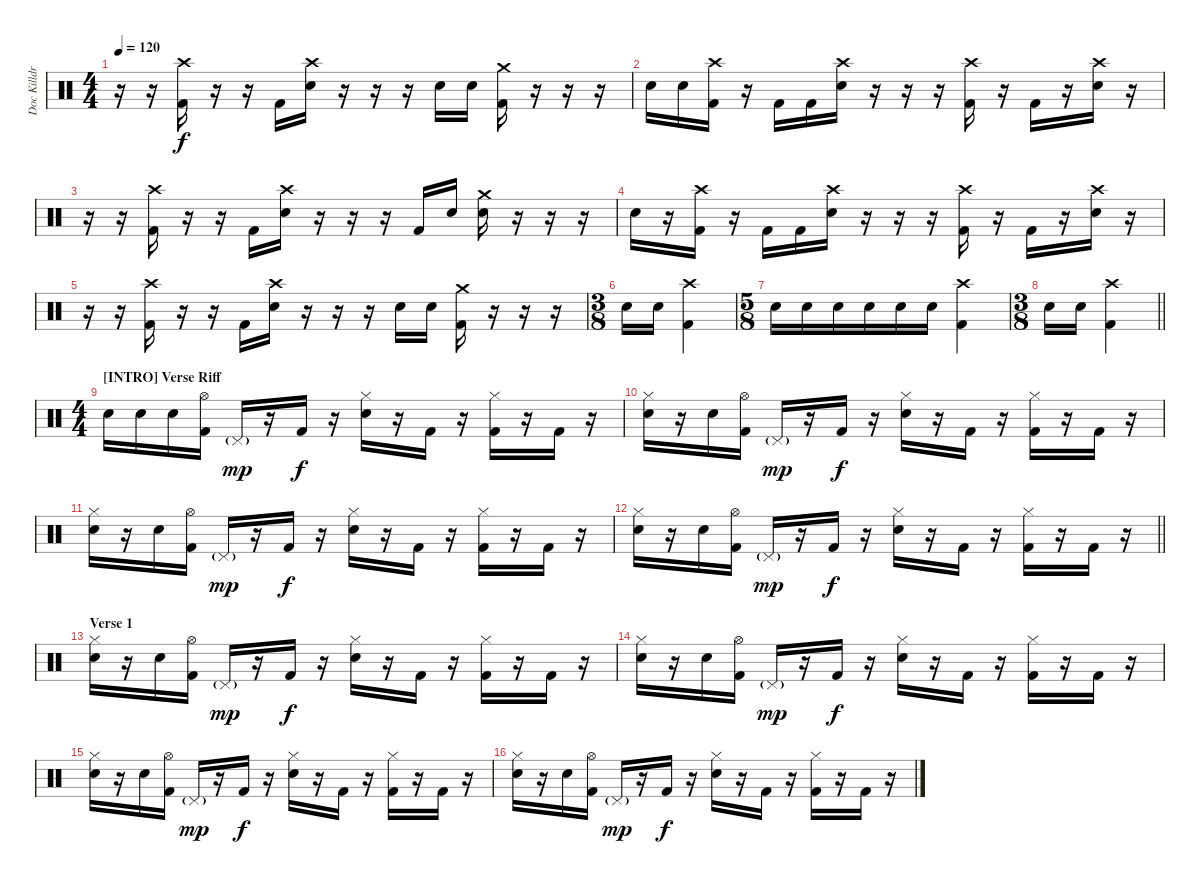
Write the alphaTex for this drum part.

\track ("Doc Killdrums (What else?)" "Doc Killdr") {instrument percussion}
\staff {score}
\articulation defaults
\ts (4 4)
\tempo 120
\clef neutral
\ks c
r.16{dy f} r.16 ("Kick (hit) 2" "Crash high (hit)").16 r.16 r.16 "Kick (hit) 2".16 ("Snare (hit) 2" "Crash high (hit)").16 r.16 r.16 r.16 "Snare (hit) 2".16 "Snare (hit) 2".16 ("Kick (hit) 2" "Crash medium (hit)").16 r.16 r.16 r.16 |
"Snare (hit) 2".16 "Snare (hit) 2".16 ("Kick (hit) 2" "Crash high (hit)").16 r.16 "Kick (hit) 2".16 "Kick (hit) 2".16 ("Snare (hit) 2" "Crash high (hit)").16 r.16 r.16 r.16 ("Kick (hit) 2" "Crash high (hit)").16 r.16 "Kick (hit) 2".16 r.16 ("Snare (hit) 2" "Crash high (hit)").16 r.16 |
r.16 r.16 ("Kick (hit) 2" "Crash high (hit)").16 r.16 r.16 "Kick (hit) 2".16 ("Snare (hit) 2" "Crash high (hit)").16 r.16 r.16 r.16 "Kick (hit) 2".16 "Snare (hit) 2".16 ("Snare (hit) 2" "Crash medium (hit)").16 r.16 r.16 r.16 |
"Snare (hit) 2".16 r.16 ("Kick (hit) 2" "Crash high (hit)").16 r.16 "Kick (hit) 2".16 "Kick (hit) 2".16 ("Snare (hit) 2" "Crash high (hit)").16 r.16 r.16 r.16 ("Kick (hit) 2" "Crash high (hit)").16 r.16 "Kick (hit) 2".16 r.16 ("Snare (hit) 2" "Crash high (hit)").16 r.16 |
r.16 r.16 ("Kick (hit) 2" "Crash high (hit)").16 r.16 r.16 "Kick (hit) 2".16 ("Snare (hit) 2" "Crash high (hit)").16 r.16 r.16 r.16 "Snare (hit) 2".16 "Snare (hit) 2".16 ("Kick (hit) 2" "Crash medium (hit)").16 r.16 r.16 r.16 |
\ts (3 8)
"Snare (hit) 2".16 "Snare (hit) 2".16 ("Kick (hit) 2" "Crash high (hit)").4 |
\ts (5 8)
"Snare (hit) 2".16 "Snare (hit) 2".16 "Snare (hit) 2".16 "Snare (hit) 2".16 "Snare (hit) 2".16 "Snare (hit) 2".16 ("Kick (hit) 2" "Crash high (hit)").4 |
\ts (3 8)
\barLineRight lightlight "Snare (hit) 2".16 "Snare (hit) 2".16
("Kick (hit) 2" "Crash high (hit)").4 |
\ts (4 4)
\section ("" "[INTRO] Verse Riff")
"Snare (hit) 2".16 "Snare (hit) 2".16 "Snare (hit) 2".16 ("Kick (hit) 2" "Hi-Hat (open)").16 "Pedal Hi-Hat (hit)"{g}.16{dy mp} r.16 "Kick (hit) 2".16{dy f} r.16 ("Snare (hit) 2" "Hi-Hat (closed)").16 r.16 "Kick (hit) 2".16 r.16 ("Kick (hit) 2" "Hi-Hat (closed)").16 r.16 "Kick (hit) 2".16 r.16 |
("Snare (hit) 2" "Hi-Hat (closed)").16 r.16 "Snare (hit) 2".16 ("Kick (hit) 2" "Hi-Hat (open)").16 "Pedal Hi-Hat (hit)"{g}.16{dy mp} r.16 "Kick (hit) 2".16{dy f} r.16 ("Snare (hit) 2" "Hi-Hat (closed)").16 r.16 "Kick (hit) 2".16 r.16 ("Kick (hit) 2" "Hi-Hat (closed)").16 r.16 "Kick (hit) 2".16 r.16 |
("Snare (hit) 2" "Hi-Hat (closed)").16 r.16 "Snare (hit) 2".16 ("Kick (hit) 2" "Hi-Hat (open)").16 "Pedal Hi-Hat (hit)"{g}.16{dy mp} r.16 "Kick (hit) 2".16{dy f} r.16 ("Snare (hit) 2" "Hi-Hat (closed)").16 r.16 "Kick (hit) 2".16 r.16 ("Kick (hit) 2" "Hi-Hat (closed)").16 r.16 "Kick (hit) 2".16 r.16 |
\barLineRight lightlight
("Snare (hit) 2" "Hi-Hat (closed)").16 r.16 "Snare (hit) 2".16 ("Kick (hit) 2" "Hi-Hat (open)").16 "Pedal Hi-Hat (hit)"{g}.16{dy mp} r.16 "Kick (hit) 2".16{dy f} r.16 ("Snare (hit) 2" "Hi-Hat (closed)").16 r.16 "Kick (hit) 2".16 r.16 ("Kick (hit) 2" "Hi-Hat (closed)").16 r.16 "Kick (hit) 2".16 r.16 |
\section ("" "Verse 1")
("Snare (hit) 2" "Hi-Hat (closed)").16 r.16 "Snare (hit) 2".16 ("Kick (hit) 2" "Hi-Hat (open)").16 "Pedal Hi-Hat (hit)"{g}.16{dy mp} r.16 "Kick (hit) 2".16{dy f} r.16 ("Snare (hit) 2" "Hi-Hat (closed)").16 r.16 "Kick (hit) 2".16 r.16 ("Kick (hit) 2" "Hi-Hat (closed)").16 r.16 "Kick (hit) 2".16 r.16 |
("Snare (hit) 2" "Hi-Hat (closed)").16 r.16 "Snare (hit) 2".16 ("Kick (hit) 2" "Hi-Hat (open)").16 "Pedal Hi-Hat (hit)"{g}.16{dy mp} r.16 "Kick (hit) 2".16{dy f} r.16 ("Snare (hit) 2" "Hi-Hat (closed)").16 r.16 "Kick (hit) 2".16 r.16 ("Kick (hit) 2" "Hi-Hat (closed)").16 r.16 "Kick (hit) 2".16 r.16 |
("Snare (hit) 2" "Hi-Hat (closed)").16 r.16 "Snare (hit) 2".16 ("Kick (hit) 2" "Hi-Hat (open)").16 "Pedal Hi-Hat (hit)"{g}.16{dy mp} r.16 "Kick (hit) 2".16{dy f} r.16 ("Snare (hit) 2" "Hi-Hat (closed)").16 r.16 "Kick (hit) 2".16 r.16 ("Kick (hit) 2" "Hi-Hat (closed)").16 r.16 "Kick (hit) 2".16 r.16 |
("Snare (hit) 2" "Hi-Hat (closed)").16 r.16 "Snare (hit) 2".16 ("Kick (hit) 2" "Hi-Hat (open)").16 "Pedal Hi-Hat (hit)"{g}.16{dy mp} r.16 "Kick (hit) 2".16{dy f} r.16 ("Snare (hit) 2" "Hi-Hat (closed)").16 r.16 "Kick (hit) 2".16 r.16 ("Kick (hit) 2" "Hi-Hat (closed)").16 r.16 "Kick (hit) 2".16 r.16
